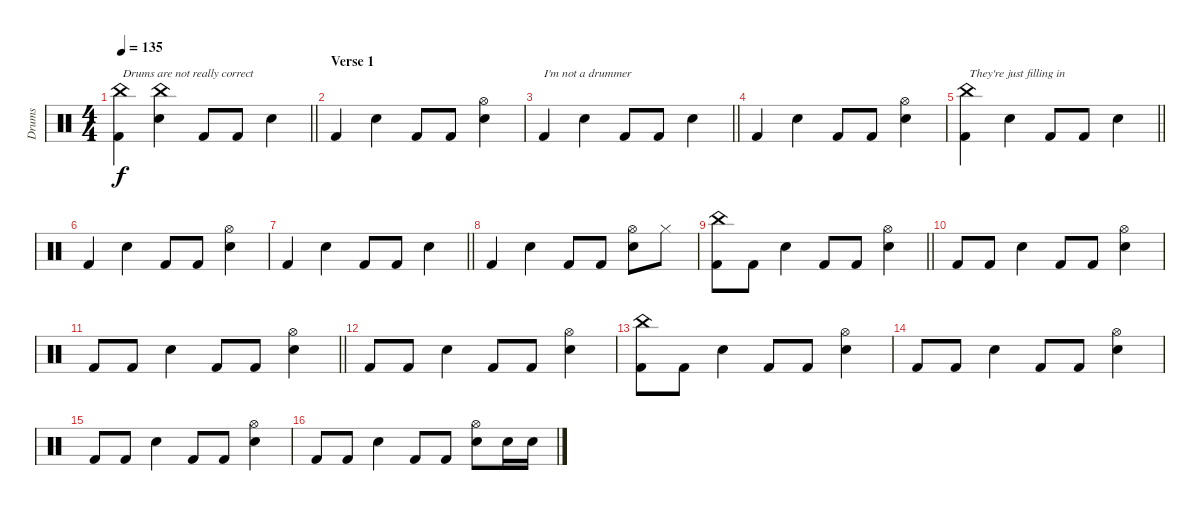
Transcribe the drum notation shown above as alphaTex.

\track ("Drums" "Drums") {instrument percussion}
\staff {score}
\articulation defaults
\ts (4 4)
\tempo 135
\clef neutral
\barLineRight lightlight
\ks c
("China (hit)" "Kick (hit) 2").4{txt "Drums are not really correct" dy f} ("China (hit)" "Electric Snare (hit)").4 "Kick (hit) 2".8 "Kick (hit) 2".8 "Electric Snare (hit)".4 |
\section ("" "Verse 1")
"Kick (hit) 2".4 "Electric Snare (hit)".4 "Kick (hit) 2".8 "Kick (hit) 2".8 ("Hi-Hat (open)" "Electric Snare (hit)").4 |
\barLineRight lightlight "Kick (hit) 2".4{txt "I'm not a drummer"} "Electric Snare (hit)".4 "Kick (hit) 2".8 "Kick (hit) 2".8 "Electric Snare (hit)".4
|
"Kick (hit) 2".4 "Electric Snare (hit)".4 "Kick (hit) 2".8 "Kick (hit) 2".8 ("Hi-Hat (open)" "Electric Snare (hit)").4 |
\barLineRight lightlight
("China (hit)" "Kick (hit) 2").4{txt "They're just filling in"} "Electric Snare (hit)".4 "Kick (hit) 2".8 "Kick (hit) 2".8 "Electric Snare (hit)".4 |
"Kick (hit) 2".4 "Electric Snare (hit)".4 "Kick (hit) 2".8 "Kick (hit) 2".8 ("Hi-Hat (open)" "Electric Snare (hit)").4 |
\barLineRight lightlight "Kick (hit) 2".4 "Electric Snare (hit)".4 "Kick (hit) 2".8 "Kick (hit) 2".8 "Electric Snare (hit)".4
|
"Kick (hit) 2".4 "Electric Snare (hit)".4 "Kick (hit) 2".8 "Kick (hit) 2".8 ("Electric Snare (hit)" "Hi-Hat (open)").8 "Hi-Hat (closed)".8 |
\barLineRight lightlight
("China (hit)" "Kick (hit) 2").8 "Kick (hit) 2".8 "Electric Snare (hit)".4 "Kick (hit) 2".8 "Kick (hit) 2".8 ("Hi-Hat (open)" "Electric Snare (hit)").4 |
"Kick (hit) 2".8 "Kick (hit) 2".8 "Electric Snare (hit)".4 "Kick (hit) 2".8 "Kick (hit) 2".8 ("Hi-Hat (open)" "Electric Snare (hit)").4 |
\barLineRight lightlight "Kick (hit) 2".8 "Kick (hit) 2".8 "Electric Snare (hit)".4 "Kick (hit) 2".8 "Kick (hit) 2".8
("Hi-Hat (open)" "Electric Snare (hit)").4 |
"Kick (hit) 2".8 "Kick (hit) 2".8 "Electric Snare (hit)".4 "Kick (hit) 2".8 "Kick (hit) 2".8 ("Hi-Hat (open)" "Electric Snare (hit)").4 |
("China (hit)" "Kick (hit) 2").8 "Kick (hit) 2".8 "Electric Snare (hit)".4 "Kick (hit) 2".8 "Kick (hit) 2".8 ("Hi-Hat (open)" "Electric Snare (hit)").4 |
"Kick (hit) 2".8 "Kick (hit) 2".8 "Electric Snare (hit)".4 "Kick (hit) 2".8 "Kick (hit) 2".8 ("Hi-Hat (open)" "Electric Snare (hit)").4 |
"Kick (hit) 2".8 "Kick (hit) 2".8 "Electric Snare (hit)".4 "Kick (hit) 2".8 "Kick (hit) 2".8 ("Hi-Hat (open)" "Electric Snare (hit)").4 |
"Kick (hit) 2".8 "Kick (hit) 2".8 "Electric Snare (hit)".4 "Kick (hit) 2".8 "Kick (hit) 2".8 ("Hi-Hat (open)" "Electric Snare (hit)").8 "Electric Snare (hit)".16 "Electric Snare (hit)".16
